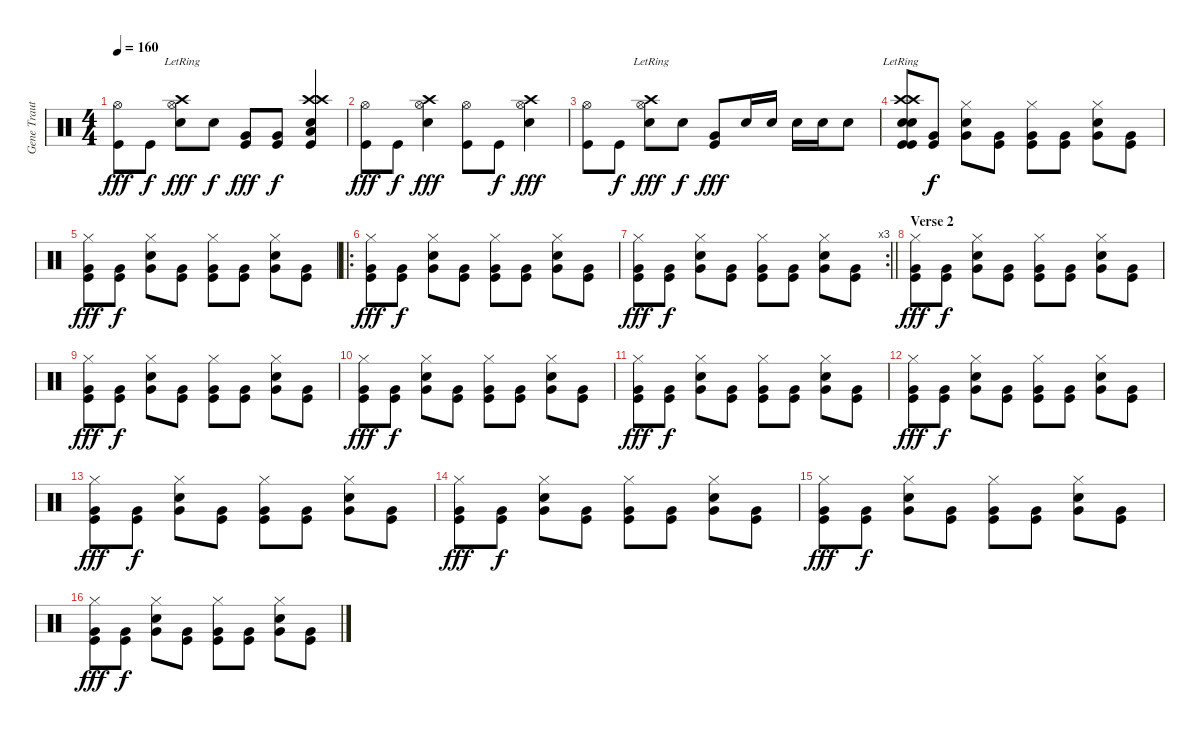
\track ("Gene Trautmann" "Gene Traut") {instrument percussion}
\staff {score}
\articulation defaults
\ts (4 4)
\tempo 160
\clef neutral
\ks c
("Hi-Hat (open)" "Kick (hit)").8{dy fff} "Kick (hit)".8{dy f} ("Crash high (hit)" "Hi-Hat (open)"{lr} "Snare (hit) 2").8{dy fff} "Snare (hit) 2".8{dy f} ("Very Low Tom (hit)" "Kick (hit)").8{dy fff} ("Very Low Tom (hit)" "Kick (hit)").8{dy f} ("Crash high (hit)" "Crash high (hit)" "Low Tom (hit)" "Snare (hit) 2" "Kick (hit)").4 |
("Hi-Hat (open)" "Kick (hit)").8{dy fff} "Kick (hit)".8{dy f} ("Crash high (hit)" "Hi-Hat (open)" "Snare (hit) 2").4{dy fff} ("Hi-Hat (open)" "Kick (hit)").8 "Kick (hit)".8{dy f} ("Crash high (hit)" "Hi-Hat (open)" "Snare (hit) 2").4{dy fff} |
("Hi-Hat (open)" "Kick (hit)").8 "Kick (hit)".8{dy f} ("Crash high (hit)" "Hi-Hat (open)"{lr} "Snare (hit) 2").8{dy fff} "Snare (hit) 2".8{dy f} ("Very Low Tom (hit)" "Kick (hit)").8{dy fff} "Snare (hit) 2".16 "Snare (hit) 2".16 "Snare (hit) 2".16 "Snare (hit) 2".16 "Snare (hit) 2".8 |
("Kick (hit)" "Crash high (hit)"{lr} "Crash high (hit)"{lr} "Snare (hit) 2" "Snare (hit) 2"{lr} "Kick (hit)").8 ("Very Low Tom (hit)" "Kick (hit)").8{dy f} ("Very Low Tom (hit)" "Hi-Hat (closed)" "Snare (hit) 2").8 ("Very Low Tom (hit)" "Kick (hit)").8 ("Very Low Tom (hit)" "Hi-Hat (closed)" "Kick (hit)").8 ("Very Low Tom (hit)" "Kick (hit)").8 ("Very Low Tom (hit)" "Hi-Hat (closed)" "Snare (hit) 2").8 ("Very Low Tom (hit)" "Kick (hit)").8 |
("Very Low Tom (hit)" "Hi-Hat (closed)" "Kick (hit)").8{dy fff} ("Very Low Tom (hit)" "Kick (hit)").8{dy f} ("Very Low Tom (hit)" "Hi-Hat (closed)" "Snare (hit) 2").8 ("Very Low Tom (hit)" "Kick (hit)").8 ("Very Low Tom (hit)" "Hi-Hat (closed)" "Kick (hit)").8 ("Very Low Tom (hit)" "Kick (hit)").8 ("Very Low Tom (hit)" "Hi-Hat (closed)" "Snare (hit) 2").8 ("Very Low Tom (hit)" "Kick (hit)").8 |
\ro
("Very Low Tom (hit)" "Hi-Hat (closed)" "Kick (hit)").8{dy fff} ("Very Low Tom (hit)" "Kick (hit)").8{dy f} ("Very Low Tom (hit)" "Hi-Hat (closed)" "Snare (hit) 2").8 ("Very Low Tom (hit)" "Kick (hit)").8 ("Very Low Tom (hit)" "Hi-Hat (closed)" "Kick (hit)").8 ("Very Low Tom (hit)" "Kick (hit)").8 ("Very Low Tom (hit)" "Hi-Hat (closed)" "Snare (hit) 2").8 ("Very Low Tom (hit)" "Kick (hit)").8 |
\rc 3
\barLineRight lightlight
("Very Low Tom (hit)" "Hi-Hat (closed)" "Kick (hit)").8{dy fff} ("Very Low Tom (hit)" "Kick (hit)").8{dy f} ("Very Low Tom (hit)" "Hi-Hat (closed)" "Snare (hit) 2").8 ("Very Low Tom (hit)" "Kick (hit)").8 ("Very Low Tom (hit)" "Hi-Hat (closed)" "Kick (hit)").8 ("Very Low Tom (hit)" "Kick (hit)").8 ("Very Low Tom (hit)" "Hi-Hat (closed)" "Snare (hit) 2").8 ("Very Low Tom (hit)" "Kick (hit)").8 |
\section ("" "Verse 2")
("Very Low Tom (hit)" "Hi-Hat (closed)" "Kick (hit)").8{dy fff} ("Very Low Tom (hit)" "Kick (hit)").8{dy f} ("Very Low Tom (hit)" "Hi-Hat (closed)" "Snare (hit) 2").8 ("Very Low Tom (hit)" "Kick (hit)").8 ("Very Low Tom (hit)" "Hi-Hat (closed)" "Kick (hit)").8 ("Very Low Tom (hit)" "Kick (hit)").8 ("Very Low Tom (hit)" "Hi-Hat (closed)" "Snare (hit) 2").8 ("Very Low Tom (hit)" "Kick (hit)").8 |
("Very Low Tom (hit)" "Hi-Hat (closed)" "Kick (hit)").8{dy fff} ("Very Low Tom (hit)" "Kick (hit)").8{dy f} ("Very Low Tom (hit)" "Hi-Hat (closed)" "Snare (hit) 2").8 ("Very Low Tom (hit)" "Kick (hit)").8 ("Very Low Tom (hit)" "Hi-Hat (closed)" "Kick (hit)").8 ("Very Low Tom (hit)" "Kick (hit)").8 ("Very Low Tom (hit)" "Hi-Hat (closed)" "Snare (hit) 2").8 ("Very Low Tom (hit)" "Kick (hit)").8 |
("Very Low Tom (hit)" "Hi-Hat (closed)" "Kick (hit)").8{dy fff} ("Very Low Tom (hit)" "Kick (hit)").8{dy f} ("Very Low Tom (hit)" "Hi-Hat (closed)" "Snare (hit) 2").8 ("Very Low Tom (hit)" "Kick (hit)").8 ("Very Low Tom (hit)" "Hi-Hat (closed)" "Kick (hit)").8 ("Very Low Tom (hit)" "Kick (hit)").8 ("Very Low Tom (hit)" "Hi-Hat (closed)" "Snare (hit) 2").8 ("Very Low Tom (hit)" "Kick (hit)").8 |
("Very Low Tom (hit)" "Hi-Hat (closed)" "Kick (hit)").8{dy fff} ("Very Low Tom (hit)" "Kick (hit)").8{dy f} ("Very Low Tom (hit)" "Hi-Hat (closed)" "Snare (hit) 2").8 ("Very Low Tom (hit)" "Kick (hit)").8 ("Very Low Tom (hit)" "Hi-Hat (closed)" "Kick (hit)").8 ("Very Low Tom (hit)" "Kick (hit)").8 ("Very Low Tom (hit)" "Hi-Hat (closed)" "Snare (hit) 2").8 ("Very Low Tom (hit)" "Kick (hit)").8 |
("Very Low Tom (hit)" "Hi-Hat (closed)" "Kick (hit)").8{dy fff} ("Very Low Tom (hit)" "Kick (hit)").8{dy f} ("Very Low Tom (hit)" "Hi-Hat (closed)" "Snare (hit) 2").8 ("Very Low Tom (hit)" "Kick (hit)").8 ("Very Low Tom (hit)" "Hi-Hat (closed)" "Kick (hit)").8 ("Very Low Tom (hit)" "Kick (hit)").8 ("Very Low Tom (hit)" "Hi-Hat (closed)" "Snare (hit) 2").8 ("Very Low Tom (hit)" "Kick (hit)").8 |
("Very Low Tom (hit)" "Hi-Hat (closed)" "Kick (hit)").8{dy fff} ("Very Low Tom (hit)" "Kick (hit)").8{dy f} ("Very Low Tom (hit)" "Hi-Hat (closed)" "Snare (hit) 2").8 ("Very Low Tom (hit)" "Kick (hit)").8 ("Very Low Tom (hit)" "Hi-Hat (closed)" "Kick (hit)").8 ("Very Low Tom (hit)" "Kick (hit)").8 ("Very Low Tom (hit)" "Hi-Hat (closed)" "Snare (hit) 2").8 ("Very Low Tom (hit)" "Kick (hit)").8 |
("Very Low Tom (hit)" "Hi-Hat (closed)" "Kick (hit)").8{dy fff} ("Very Low Tom (hit)" "Kick (hit)").8{dy f} ("Very Low Tom (hit)" "Hi-Hat (closed)" "Snare (hit) 2").8 ("Very Low Tom (hit)" "Kick (hit)").8 ("Very Low Tom (hit)" "Hi-Hat (closed)" "Kick (hit)").8 ("Very Low Tom (hit)" "Kick (hit)").8 ("Very Low Tom (hit)" "Hi-Hat (closed)" "Snare (hit) 2").8 ("Very Low Tom (hit)" "Kick (hit)").8 |
("Very Low Tom (hit)" "Hi-Hat (closed)" "Kick (hit)").8{dy fff} ("Very Low Tom (hit)" "Kick (hit)").8{dy f} ("Very Low Tom (hit)" "Hi-Hat (closed)" "Snare (hit) 2").8 ("Very Low Tom (hit)" "Kick (hit)").8 ("Very Low Tom (hit)" "Hi-Hat (closed)" "Kick (hit)").8 ("Very Low Tom (hit)" "Kick (hit)").8 ("Very Low Tom (hit)" "Hi-Hat (closed)" "Snare (hit) 2").8 ("Very Low Tom (hit)" "Kick (hit)").8 |
("Very Low Tom (hit)" "Hi-Hat (closed)" "Kick (hit)").8{dy fff} ("Very Low Tom (hit)" "Kick (hit)").8{dy f} ("Very Low Tom (hit)" "Hi-Hat (closed)" "Snare (hit) 2").8 ("Very Low Tom (hit)" "Kick (hit)").8 ("Very Low Tom (hit)" "Hi-Hat (closed)" "Kick (hit)").8 ("Very Low Tom (hit)" "Kick (hit)").8 ("Very Low Tom (hit)" "Hi-Hat (closed)" "Snare (hit) 2").8 ("Very Low Tom (hit)" "Kick (hit)").8
